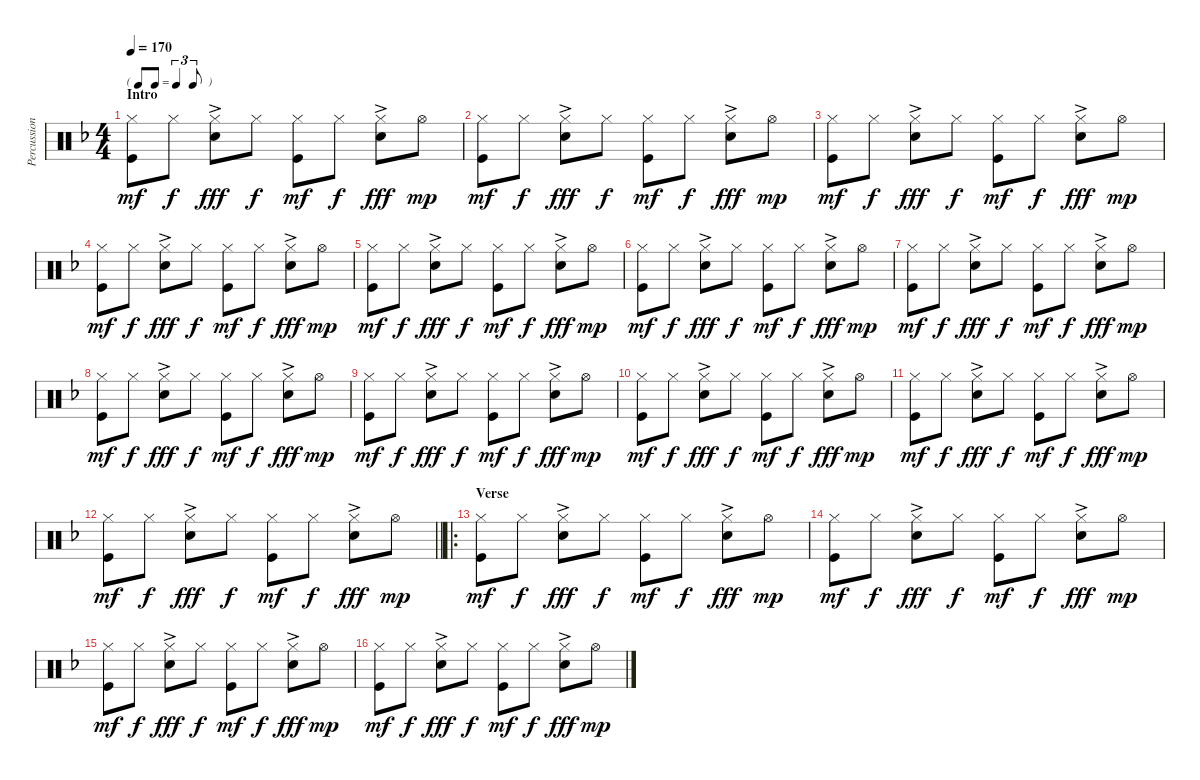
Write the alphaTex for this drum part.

\track ("Percussion" "Percussion") {instrument percussion}
\staff {score}
\articulation defaults
\ts (4 4)
\tf triplet8th
\section ("" "Intro")
\tempo 170
\clef neutral
\ks f
("Hi-Hat (closed)" "Kick (hit)").8{dy mf} "Hi-Hat (closed)".8{dy f} ("Hi-Hat (closed)" "Snare (hit) 2"{ac}).8{dy fff} "Hi-Hat (closed)".8{dy f} ("Hi-Hat (closed)" "Kick (hit)").8{dy mf} "Hi-Hat (closed)".8{dy f} ("Hi-Hat (closed)" "Snare (hit) 2"{ac}).8{dy fff} "Hi-Hat (open)".8{dy mp} |
("Hi-Hat (closed)" "Kick (hit)").8{dy mf} "Hi-Hat (closed)".8{dy f} ("Hi-Hat (closed)" "Snare (hit) 2"{ac}).8{dy fff} "Hi-Hat (closed)".8{dy f} ("Hi-Hat (closed)" "Kick (hit)").8{dy mf} "Hi-Hat (closed)".8{dy f} ("Hi-Hat (closed)" "Snare (hit) 2"{ac}).8{dy fff} "Hi-Hat (open)".8{dy mp} |
("Hi-Hat (closed)" "Kick (hit)").8{dy mf} "Hi-Hat (closed)".8{dy f} ("Hi-Hat (closed)" "Snare (hit) 2"{ac}).8{dy fff} "Hi-Hat (closed)".8{dy f} ("Hi-Hat (closed)" "Kick (hit)").8{dy mf} "Hi-Hat (closed)".8{dy f} ("Hi-Hat (closed)" "Snare (hit) 2"{ac}).8{dy fff} "Hi-Hat (open)".8{dy mp} |
("Hi-Hat (closed)" "Kick (hit)").8{dy mf} "Hi-Hat (closed)".8{dy f} ("Hi-Hat (closed)" "Snare (hit) 2"{ac}).8{dy fff} "Hi-Hat (closed)".8{dy f} ("Hi-Hat (closed)" "Kick (hit)").8{dy mf} "Hi-Hat (closed)".8{dy f} ("Hi-Hat (closed)" "Snare (hit) 2"{ac}).8{dy fff} "Hi-Hat (open)".8{dy mp} |
("Hi-Hat (closed)" "Kick (hit)").8{dy mf} "Hi-Hat (closed)".8{dy f} ("Hi-Hat (closed)" "Snare (hit) 2"{ac}).8{dy fff} "Hi-Hat (closed)".8{dy f} ("Hi-Hat (closed)" "Kick (hit)").8{dy mf} "Hi-Hat (closed)".8{dy f} ("Hi-Hat (closed)" "Snare (hit) 2"{ac}).8{dy fff} "Hi-Hat (open)".8{dy mp} |
("Hi-Hat (closed)" "Kick (hit)").8{dy mf} "Hi-Hat (closed)".8{dy f} ("Hi-Hat (closed)" "Snare (hit) 2"{ac}).8{dy fff} "Hi-Hat (closed)".8{dy f} ("Hi-Hat (closed)" "Kick (hit)").8{dy mf} "Hi-Hat (closed)".8{dy f} ("Hi-Hat (closed)" "Snare (hit) 2"{ac}).8{dy fff} "Hi-Hat (open)".8{dy mp} |
("Hi-Hat (closed)" "Kick (hit)").8{dy mf} "Hi-Hat (closed)".8{dy f} ("Hi-Hat (closed)" "Snare (hit) 2"{ac}).8{dy fff} "Hi-Hat (closed)".8{dy f} ("Hi-Hat (closed)" "Kick (hit)").8{dy mf} "Hi-Hat (closed)".8{dy f} ("Hi-Hat (closed)" "Snare (hit) 2"{ac}).8{dy fff} "Hi-Hat (open)".8{dy mp} |
("Hi-Hat (closed)" "Kick (hit)").8{dy mf} "Hi-Hat (closed)".8{dy f} ("Hi-Hat (closed)" "Snare (hit) 2"{ac}).8{dy fff} "Hi-Hat (closed)".8{dy f} ("Hi-Hat (closed)" "Kick (hit)").8{dy mf} "Hi-Hat (closed)".8{dy f} ("Hi-Hat (closed)" "Snare (hit) 2"{ac}).8{dy fff} "Hi-Hat (open)".8{dy mp} |
("Hi-Hat (closed)" "Kick (hit)").8{dy mf} "Hi-Hat (closed)".8{dy f} ("Hi-Hat (closed)" "Snare (hit) 2"{ac}).8{dy fff} "Hi-Hat (closed)".8{dy f} ("Hi-Hat (closed)" "Kick (hit)").8{dy mf} "Hi-Hat (closed)".8{dy f} ("Hi-Hat (closed)" "Snare (hit) 2"{ac}).8{dy fff} "Hi-Hat (open)".8{dy mp} |
("Hi-Hat (closed)" "Kick (hit)").8{dy mf} "Hi-Hat (closed)".8{dy f} ("Hi-Hat (closed)" "Snare (hit) 2"{ac}).8{dy fff} "Hi-Hat (closed)".8{dy f} ("Hi-Hat (closed)" "Kick (hit)").8{dy mf} "Hi-Hat (closed)".8{dy f} ("Hi-Hat (closed)" "Snare (hit) 2"{ac}).8{dy fff} "Hi-Hat (open)".8{dy mp} |
("Hi-Hat (closed)" "Kick (hit)").8{dy mf} "Hi-Hat (closed)".8{dy f} ("Hi-Hat (closed)" "Snare (hit) 2"{ac}).8{dy fff} "Hi-Hat (closed)".8{dy f} ("Hi-Hat (closed)" "Kick (hit)").8{dy mf} "Hi-Hat (closed)".8{dy f} ("Hi-Hat (closed)" "Snare (hit) 2"{ac}).8{dy fff} "Hi-Hat (open)".8{dy mp} |
\barLineRight lightlight
("Hi-Hat (closed)" "Kick (hit)").8{dy mf} "Hi-Hat (closed)".8{dy f} ("Hi-Hat (closed)" "Snare (hit) 2"{ac}).8{dy fff} "Hi-Hat (closed)".8{dy f} ("Hi-Hat (closed)" "Kick (hit)").8{dy mf} "Hi-Hat (closed)".8{dy f} ("Hi-Hat (closed)" "Snare (hit) 2"{ac}).8{dy fff} "Hi-Hat (open)".8{dy mp} |
\ro
\section ("" "Verse")
("Hi-Hat (closed)" "Kick (hit)").8{dy mf} "Hi-Hat (closed)".8{dy f} ("Hi-Hat (closed)" "Snare (hit) 2"{ac}).8{dy fff} "Hi-Hat (closed)".8{dy f} ("Hi-Hat (closed)" "Kick (hit)").8{dy mf} "Hi-Hat (closed)".8{dy f} ("Hi-Hat (closed)" "Snare (hit) 2"{ac}).8{dy fff} "Hi-Hat (open)".8{dy mp} |
("Hi-Hat (closed)" "Kick (hit)").8{dy mf} "Hi-Hat (closed)".8{dy f} ("Hi-Hat (closed)" "Snare (hit) 2"{ac}).8{dy fff} "Hi-Hat (closed)".8{dy f} ("Hi-Hat (closed)" "Kick (hit)").8{dy mf} "Hi-Hat (closed)".8{dy f} ("Hi-Hat (closed)" "Snare (hit) 2"{ac}).8{dy fff} "Hi-Hat (open)".8{dy mp} |
("Hi-Hat (closed)" "Kick (hit)").8{dy mf} "Hi-Hat (closed)".8{dy f} ("Hi-Hat (closed)" "Snare (hit) 2"{ac}).8{dy fff} "Hi-Hat (closed)".8{dy f} ("Hi-Hat (closed)" "Kick (hit)").8{dy mf} "Hi-Hat (closed)".8{dy f} ("Hi-Hat (closed)" "Snare (hit) 2"{ac}).8{dy fff} "Hi-Hat (open)".8{dy mp} |
("Hi-Hat (closed)" "Kick (hit)").8{dy mf} "Hi-Hat (closed)".8{dy f} ("Hi-Hat (closed)" "Snare (hit) 2"{ac}).8{dy fff} "Hi-Hat (closed)".8{dy f} ("Hi-Hat (closed)" "Kick (hit)").8{dy mf} "Hi-Hat (closed)".8{dy f} ("Hi-Hat (closed)" "Snare (hit) 2"{ac}).8{dy fff} "Hi-Hat (open)".8{dy mp}
